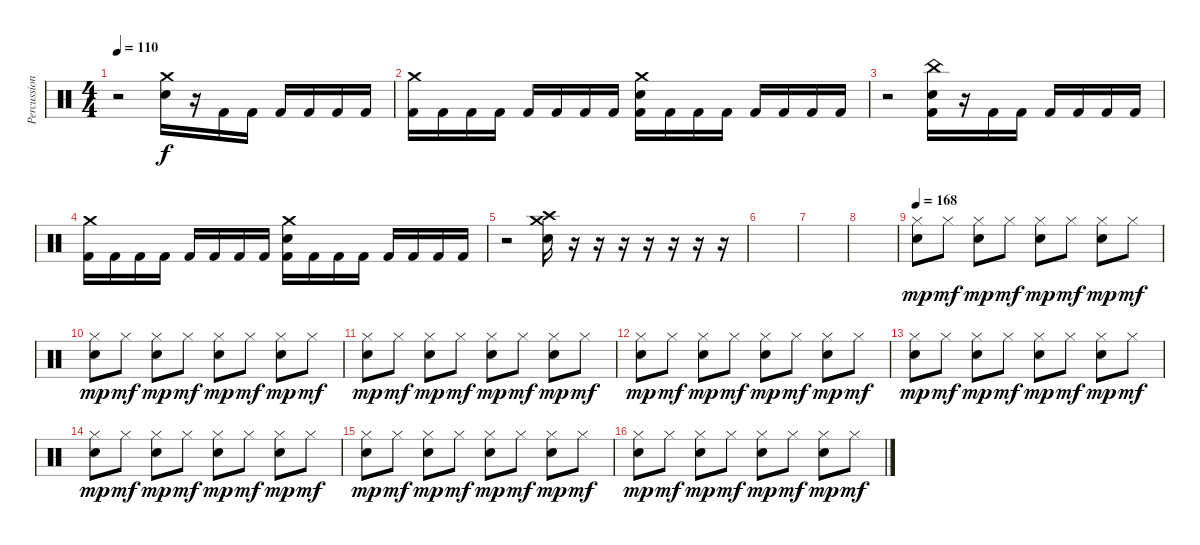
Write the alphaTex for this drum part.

\track ("Percussion" "Percussion") {instrument percussion}
\staff {score}
\articulation defaults
\ts (4 4)
\tempo 110
\clef neutral
\ks c
r.2{dy f} ("Crash medium (hit)" "Snare (hit) 2").16 r.16 "Kick (hit) 2".16 "Kick (hit) 2".16 "Kick (hit) 2".16 "Kick (hit) 2".16 "Kick (hit) 2".16 "Kick (hit) 2".16 |
("Crash medium (hit)" "Kick (hit) 2").16 "Kick (hit) 2".16 "Kick (hit) 2".16 "Kick (hit) 2".16 "Kick (hit) 2".16 "Kick (hit) 2".16 "Kick (hit) 2".16 "Kick (hit) 2".16 ("Crash medium (hit)" "Snare (hit) 2" "Kick (hit) 2").16 "Kick (hit) 2".16 "Kick (hit) 2".16 "Kick (hit) 2".16 "Kick (hit) 2".16 "Kick (hit) 2".16 "Kick (hit) 2".16 "Kick (hit) 2".16 |
r.2 ("China (hit)" "Snare (hit) 2" "Kick (hit) 2").16 r.16 "Kick (hit) 2".16 "Kick (hit) 2".16 "Kick (hit) 2".16 "Kick (hit) 2".16 "Kick (hit) 2".16 "Kick (hit) 2".16 |
("Crash medium (hit)" "Kick (hit) 2").16 "Kick (hit) 2".16 "Kick (hit) 2".16 "Kick (hit) 2".16 "Kick (hit) 2".16 "Kick (hit) 2".16 "Kick (hit) 2".16 "Kick (hit) 2".16 ("Crash medium (hit)" "Snare (hit) 2" "Kick (hit) 2").16 "Kick (hit) 2".16 "Kick (hit) 2".16 "Kick (hit) 2".16 "Kick (hit) 2".16 "Kick (hit) 2".16 "Kick (hit) 2".16 "Kick (hit) 2".16 |
r.2 ("Crash medium (hit)" "Crash high (hit)" "Snare (hit) 2").16 r.16 r.16 r.16 r.16 r.16 r.16 r.16 |
|
|
|
\tempo 168
("Hi-Hat (closed)" "Electric Snare (hit)").8{dy mp} "Hi-Hat (closed)".8{dy mf} ("Hi-Hat (closed)" "Electric Snare (hit)").8{dy mp} "Hi-Hat (closed)".8{dy mf} ("Hi-Hat (closed)" "Electric Snare (hit)").8{dy mp} "Hi-Hat (closed)".8{dy mf} ("Hi-Hat (closed)" "Electric Snare (hit)").8{dy mp} "Hi-Hat (closed)".8{dy mf} |
("Hi-Hat (closed)" "Electric Snare (hit)").8{dy mp} "Hi-Hat (closed)".8{dy mf} ("Hi-Hat (closed)" "Electric Snare (hit)").8{dy mp} "Hi-Hat (closed)".8{dy mf} ("Hi-Hat (closed)" "Electric Snare (hit)").8{dy mp} "Hi-Hat (closed)".8{dy mf} ("Hi-Hat (closed)" "Electric Snare (hit)").8{dy mp} "Hi-Hat (closed)".8{dy mf} |
("Hi-Hat (closed)" "Electric Snare (hit)").8{dy mp} "Hi-Hat (closed)".8{dy mf} ("Hi-Hat (closed)" "Electric Snare (hit)").8{dy mp} "Hi-Hat (closed)".8{dy mf} ("Hi-Hat (closed)" "Electric Snare (hit)").8{dy mp} "Hi-Hat (closed)".8{dy mf} ("Hi-Hat (closed)" "Electric Snare (hit)").8{dy mp} "Hi-Hat (closed)".8{dy mf} |
("Hi-Hat (closed)" "Electric Snare (hit)").8{dy mp} "Hi-Hat (closed)".8{dy mf} ("Hi-Hat (closed)" "Electric Snare (hit)").8{dy mp} "Hi-Hat (closed)".8{dy mf} ("Hi-Hat (closed)" "Electric Snare (hit)").8{dy mp} "Hi-Hat (closed)".8{dy mf} ("Hi-Hat (closed)" "Electric Snare (hit)").8{dy mp} "Hi-Hat (closed)".8{dy mf} |
("Hi-Hat (closed)" "Electric Snare (hit)").8{dy mp} "Hi-Hat (closed)".8{dy mf} ("Hi-Hat (closed)" "Electric Snare (hit)").8{dy mp} "Hi-Hat (closed)".8{dy mf} ("Hi-Hat (closed)" "Electric Snare (hit)").8{dy mp} "Hi-Hat (closed)".8{dy mf} ("Hi-Hat (closed)" "Electric Snare (hit)").8{dy mp} "Hi-Hat (closed)".8{dy mf} |
("Hi-Hat (closed)" "Electric Snare (hit)").8{dy mp} "Hi-Hat (closed)".8{dy mf} ("Hi-Hat (closed)" "Electric Snare (hit)").8{dy mp} "Hi-Hat (closed)".8{dy mf} ("Hi-Hat (closed)" "Electric Snare (hit)").8{dy mp} "Hi-Hat (closed)".8{dy mf} ("Hi-Hat (closed)" "Electric Snare (hit)").8{dy mp} "Hi-Hat (closed)".8{dy mf} |
("Hi-Hat (closed)" "Electric Snare (hit)").8{dy mp} "Hi-Hat (closed)".8{dy mf} ("Hi-Hat (closed)" "Electric Snare (hit)").8{dy mp} "Hi-Hat (closed)".8{dy mf} ("Hi-Hat (closed)" "Electric Snare (hit)").8{dy mp} "Hi-Hat (closed)".8{dy mf} ("Hi-Hat (closed)" "Electric Snare (hit)").8{dy mp} "Hi-Hat (closed)".8{dy mf} |
("Hi-Hat (closed)" "Electric Snare (hit)").8{dy mp} "Hi-Hat (closed)".8{dy mf} ("Hi-Hat (closed)" "Electric Snare (hit)").8{dy mp} "Hi-Hat (closed)".8{dy mf} ("Hi-Hat (closed)" "Electric Snare (hit)").8{dy mp} "Hi-Hat (closed)".8{dy mf} ("Hi-Hat (closed)" "Electric Snare (hit)").8{dy mp} "Hi-Hat (closed)".8{dy mf}
